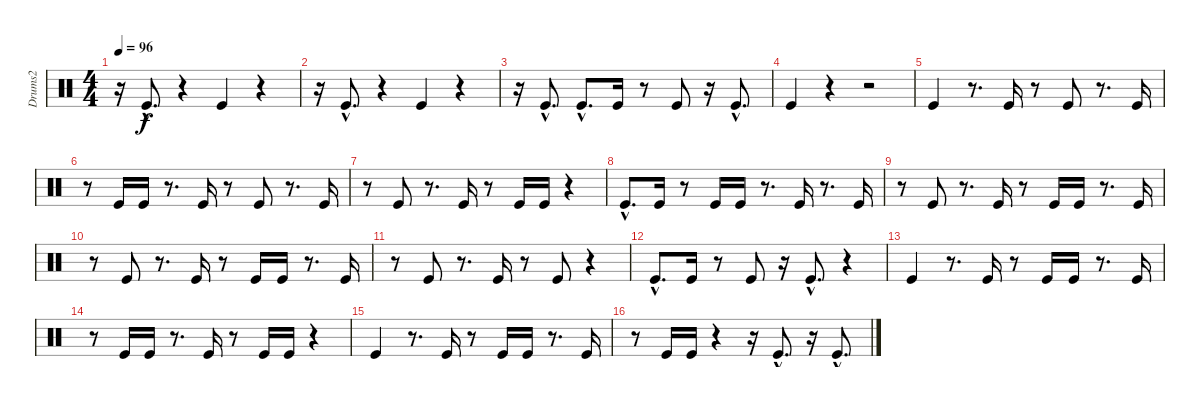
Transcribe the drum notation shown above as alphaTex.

\track ("Drums2" "Drums2") {instrument percussion}
\staff {score}
\articulation defaults
\ts (4 4)
\tempo 96
\clef neutral
\ks c
r.16{dy f} "Kick (hit)"{hac}.8{d} r.4 "Kick (hit)".4 r.4 |
r.16 "Kick (hit)"{hac}.8{d} r.4 "Kick (hit)".4 r.4 |
r.16 "Kick (hit)"{hac}.8{d} "Kick (hit)"{hac}.8{d} "Kick (hit)".16 r.8 "Kick (hit)".8 r.16 "Kick (hit)"{hac}.8{d} |
"Kick (hit)".4 r.4 r.2 |
"Kick (hit)".4 r.8{d} "Kick (hit)".16 r.8 "Kick (hit)".8 r.8{d} "Kick (hit)".16 |
r.8 "Kick (hit)".16 "Kick (hit)".16 r.8{d} "Kick (hit)".16 r.8 "Kick (hit)".8 r.8{d} "Kick (hit)".16 |
r.8 "Kick (hit)".8 r.8{d} "Kick (hit)".16 r.8 "Kick (hit)".16 "Kick (hit)".16 r.4 |
"Kick (hit)"{hac}.8{d} "Kick (hit)".16 r.8 "Kick (hit)".16 "Kick (hit)".16 r.8{d} "Kick (hit)".16 r.8{d} "Kick (hit)".16 |
r.8 "Kick (hit)".8 r.8{d} "Kick (hit)".16 r.8 "Kick (hit)".16 "Kick (hit)".16 r.8{d} "Kick (hit)".16 |
r.8 "Kick (hit)".8 r.8{d} "Kick (hit)".16 r.8 "Kick (hit)".16 "Kick (hit)".16 r.8{d} "Kick (hit)".16 |
r.8 "Kick (hit)".8 r.8{d} "Kick (hit)".16 r.8 "Kick (hit)".8 r.4 |
"Kick (hit)"{hac}.8{d} "Kick (hit)".16 r.8 "Kick (hit)".8 r.16 "Kick (hit)"{hac}.8{d} r.4 |
"Kick (hit)".4 r.8{d} "Kick (hit)".16 r.8 "Kick (hit)".16 "Kick (hit)".16 r.8{d} "Kick (hit)".16 |
r.8 "Kick (hit)".16 "Kick (hit)".16 r.8{d} "Kick (hit)".16 r.8 "Kick (hit)".16 "Kick (hit)".16 r.4 |
"Kick (hit)".4 r.8{d} "Kick (hit)".16 r.8 "Kick (hit)".16 "Kick (hit)".16 r.8{d} "Kick (hit)".16 |
r.8 "Kick (hit)".16 "Kick (hit)".16 r.4 r.16 "Kick (hit)"{hac}.8{d} r.16 "Kick (hit)"{hac}.8{d}
